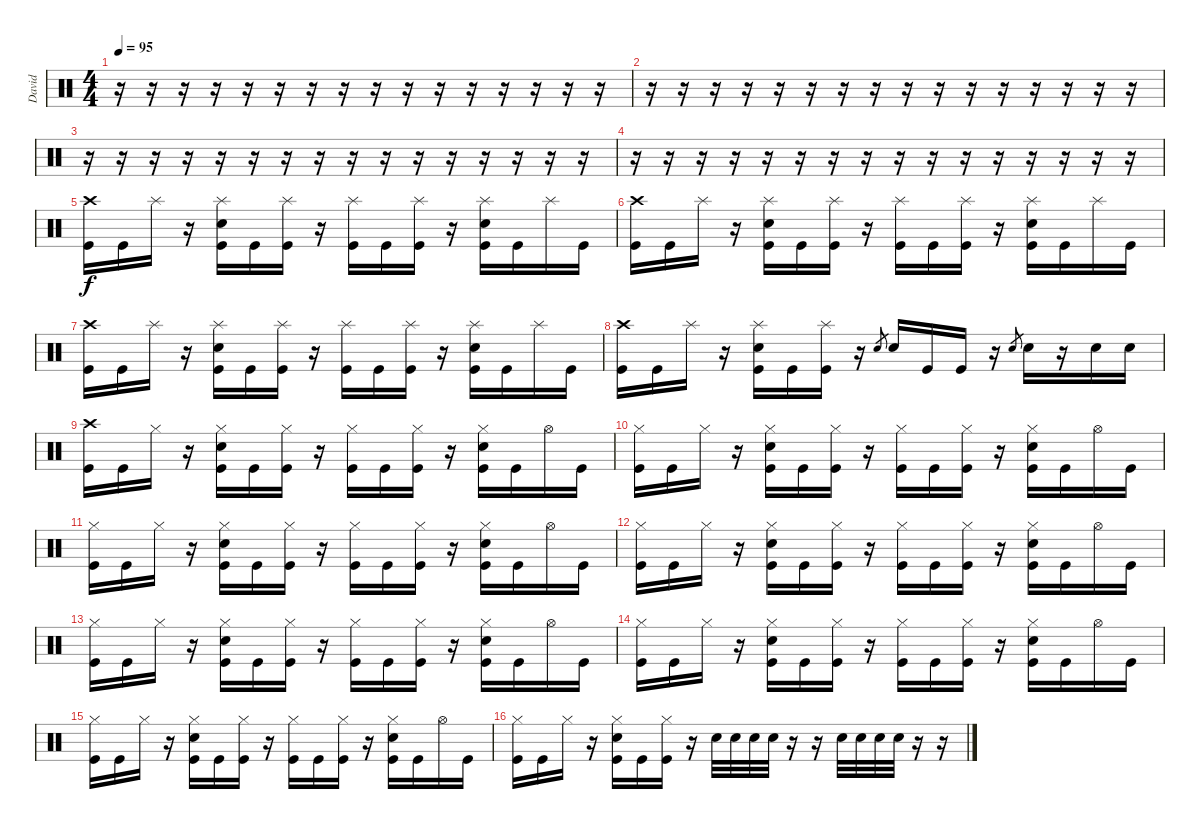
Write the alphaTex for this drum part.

\track ("David" "David") {instrument percussion}
\staff {score}
\articulation defaults
\ts (4 4)
\tempo 95
\clef neutral
\ks c
r.16{dy f} r.16 r.16 r.16 r.16 r.16 r.16 r.16 r.16 r.16 r.16 r.16 r.16 r.16 r.16 r.16 |
r.16 r.16 r.16 r.16 r.16 r.16 r.16 r.16 r.16 r.16 r.16 r.16 r.16 r.16 r.16 r.16 |
r.16 r.16 r.16 r.16 r.16 r.16 r.16 r.16 r.16 r.16 r.16 r.16 r.16 r.16 r.16 r.16 |
r.16 r.16 r.16 r.16 r.16 r.16 r.16 r.16 r.16 r.16 r.16 r.16 r.16 r.16 r.16 r.16 |
("Crash high (hit)" "Kick (hit)").16 "Kick (hit)".16 "Splash (hit)".16 r.16 ("Splash (hit)" "Electric Snare (hit)" "Kick (hit)").16 "Kick (hit)".16 ("Splash (hit)" "Kick (hit)").16 r.16 ("Splash (hit)" "Kick (hit)").16 "Kick (hit)".16 ("Splash (hit)" "Kick (hit)").16 r.16 ("Splash (hit)" "Electric Snare (hit)" "Kick (hit)").16 "Kick (hit)".16 "Splash (hit)".16 "Kick (hit)".16 |
("Crash high (hit)" "Kick (hit)").16 "Kick (hit)".16 "Splash (hit)".16 r.16 ("Splash (hit)" "Electric Snare (hit)" "Kick (hit)").16 "Kick (hit)".16 ("Splash (hit)" "Kick (hit)").16 r.16 ("Splash (hit)" "Kick (hit)").16 "Kick (hit)".16 ("Splash (hit)" "Kick (hit)").16 r.16 ("Splash (hit)" "Electric Snare (hit)" "Kick (hit)").16 "Kick (hit)".16 "Splash (hit)".16 "Kick (hit)".16 |
("Crash high (hit)" "Kick (hit)").16 "Kick (hit)".16 "Splash (hit)".16 r.16 ("Splash (hit)" "Electric Snare (hit)" "Kick (hit)").16 "Kick (hit)".16 ("Splash (hit)" "Kick (hit)").16 r.16 ("Splash (hit)" "Kick (hit)").16 "Kick (hit)".16 ("Splash (hit)" "Kick (hit)").16 r.16 ("Splash (hit)" "Electric Snare (hit)" "Kick (hit)").16 "Kick (hit)".16 "Splash (hit)".16 "Kick (hit)".16 |
("Crash high (hit)" "Kick (hit)").16 "Kick (hit)".16 "Splash (hit)".16 r.16 ("Splash (hit)" "Electric Snare (hit)" "Kick (hit)").16 "Kick (hit)".16 ("Splash (hit)" "Kick (hit)").16 r.16 "Electric Snare (hit)".8{gr} "Electric Snare (hit)".16 "Kick (hit)".16 "Kick (hit)".16 r.16 "Electric Snare (hit)".8{gr} "Electric Snare (hit)".16 r.16 "Electric Snare (hit)".16 "Electric Snare (hit)".16 |
("Crash high (hit)" "Kick (hit)").16 "Kick (hit)".16 "Hi-Hat (closed)".16 r.16 ("Hi-Hat (closed)" "Electric Snare (hit)" "Kick (hit)").16 "Kick (hit)".16 ("Hi-Hat (closed)" "Kick (hit)").16 r.16 ("Hi-Hat (closed)" "Kick (hit)").16 "Kick (hit)".16 ("Hi-Hat (closed)" "Kick (hit)").16 r.16 ("Hi-Hat (closed)" "Electric Snare (hit)" "Kick (hit)").16 "Kick (hit)".16 "Hi-Hat (open)".16 "Kick (hit)".16 |
("Hi-Hat (closed)" "Kick (hit)").16 "Kick (hit)".16 "Hi-Hat (closed)".16 r.16 ("Hi-Hat (closed)" "Electric Snare (hit)" "Kick (hit)").16 "Kick (hit)".16 ("Hi-Hat (closed)" "Kick (hit)").16 r.16 ("Hi-Hat (closed)" "Kick (hit)").16 "Kick (hit)".16 ("Hi-Hat (closed)" "Kick (hit)").16 r.16 ("Hi-Hat (closed)" "Electric Snare (hit)" "Kick (hit)").16 "Kick (hit)".16 "Hi-Hat (open)".16 "Kick (hit)".16 |
("Hi-Hat (closed)" "Kick (hit)").16 "Kick (hit)".16 "Hi-Hat (closed)".16 r.16 ("Hi-Hat (closed)" "Electric Snare (hit)" "Kick (hit)").16 "Kick (hit)".16 ("Hi-Hat (closed)" "Kick (hit)").16 r.16 ("Hi-Hat (closed)" "Kick (hit)").16 "Kick (hit)".16 ("Hi-Hat (closed)" "Kick (hit)").16 r.16 ("Hi-Hat (closed)" "Electric Snare (hit)" "Kick (hit)").16 "Kick (hit)".16 "Hi-Hat (open)".16 "Kick (hit)".16 |
("Hi-Hat (closed)" "Kick (hit)").16 "Kick (hit)".16 "Hi-Hat (closed)".16 r.16 ("Hi-Hat (closed)" "Electric Snare (hit)" "Kick (hit)").16 "Kick (hit)".16 ("Hi-Hat (closed)" "Kick (hit)").16 r.16 ("Hi-Hat (closed)" "Kick (hit)").16 "Kick (hit)".16 ("Hi-Hat (closed)" "Kick (hit)").16 r.16 ("Hi-Hat (closed)" "Electric Snare (hit)" "Kick (hit)").16 "Kick (hit)".16 "Hi-Hat (open)".16 "Kick (hit)".16 |
("Hi-Hat (closed)" "Kick (hit)").16 "Kick (hit)".16 "Hi-Hat (closed)".16 r.16 ("Hi-Hat (closed)" "Electric Snare (hit)" "Kick (hit)").16 "Kick (hit)".16 ("Hi-Hat (closed)" "Kick (hit)").16 r.16 ("Hi-Hat (closed)" "Kick (hit)").16 "Kick (hit)".16 ("Hi-Hat (closed)" "Kick (hit)").16 r.16 ("Hi-Hat (closed)" "Electric Snare (hit)" "Kick (hit)").16 "Kick (hit)".16 "Hi-Hat (open)".16 "Kick (hit)".16 |
("Hi-Hat (closed)" "Kick (hit)").16 "Kick (hit)".16 "Hi-Hat (closed)".16 r.16 ("Hi-Hat (closed)" "Electric Snare (hit)" "Kick (hit)").16 "Kick (hit)".16 ("Hi-Hat (closed)" "Kick (hit)").16 r.16 ("Hi-Hat (closed)" "Kick (hit)").16 "Kick (hit)".16 ("Hi-Hat (closed)" "Kick (hit)").16 r.16 ("Hi-Hat (closed)" "Electric Snare (hit)" "Kick (hit)").16 "Kick (hit)".16 "Hi-Hat (open)".16 "Kick (hit)".16 |
("Hi-Hat (closed)" "Kick (hit)").16 "Kick (hit)".16 "Hi-Hat (closed)".16 r.16 ("Hi-Hat (closed)" "Electric Snare (hit)" "Kick (hit)").16 "Kick (hit)".16 ("Hi-Hat (closed)" "Kick (hit)").16 r.16 ("Hi-Hat (closed)" "Kick (hit)").16 "Kick (hit)".16 ("Hi-Hat (closed)" "Kick (hit)").16 r.16 ("Hi-Hat (closed)" "Electric Snare (hit)" "Kick (hit)").16 "Kick (hit)".16 "Hi-Hat (open)".16 "Kick (hit)".16 |
("Hi-Hat (closed)" "Kick (hit)").16 "Kick (hit)".16 "Hi-Hat (closed)".16 r.16 ("Hi-Hat (closed)" "Electric Snare (hit)" "Kick (hit)").16 "Kick (hit)".16 ("Hi-Hat (closed)" "Kick (hit)").16 r.16 "Electric Snare (hit)".32 "Electric Snare (hit)".32 "Electric Snare (hit)".32 "Electric Snare (hit)".32 r.16 r.16 "Electric Snare (hit)".32 "Electric Snare (hit)".32 "Electric Snare (hit)".32 "Electric Snare (hit)".32 r.16 r.16
